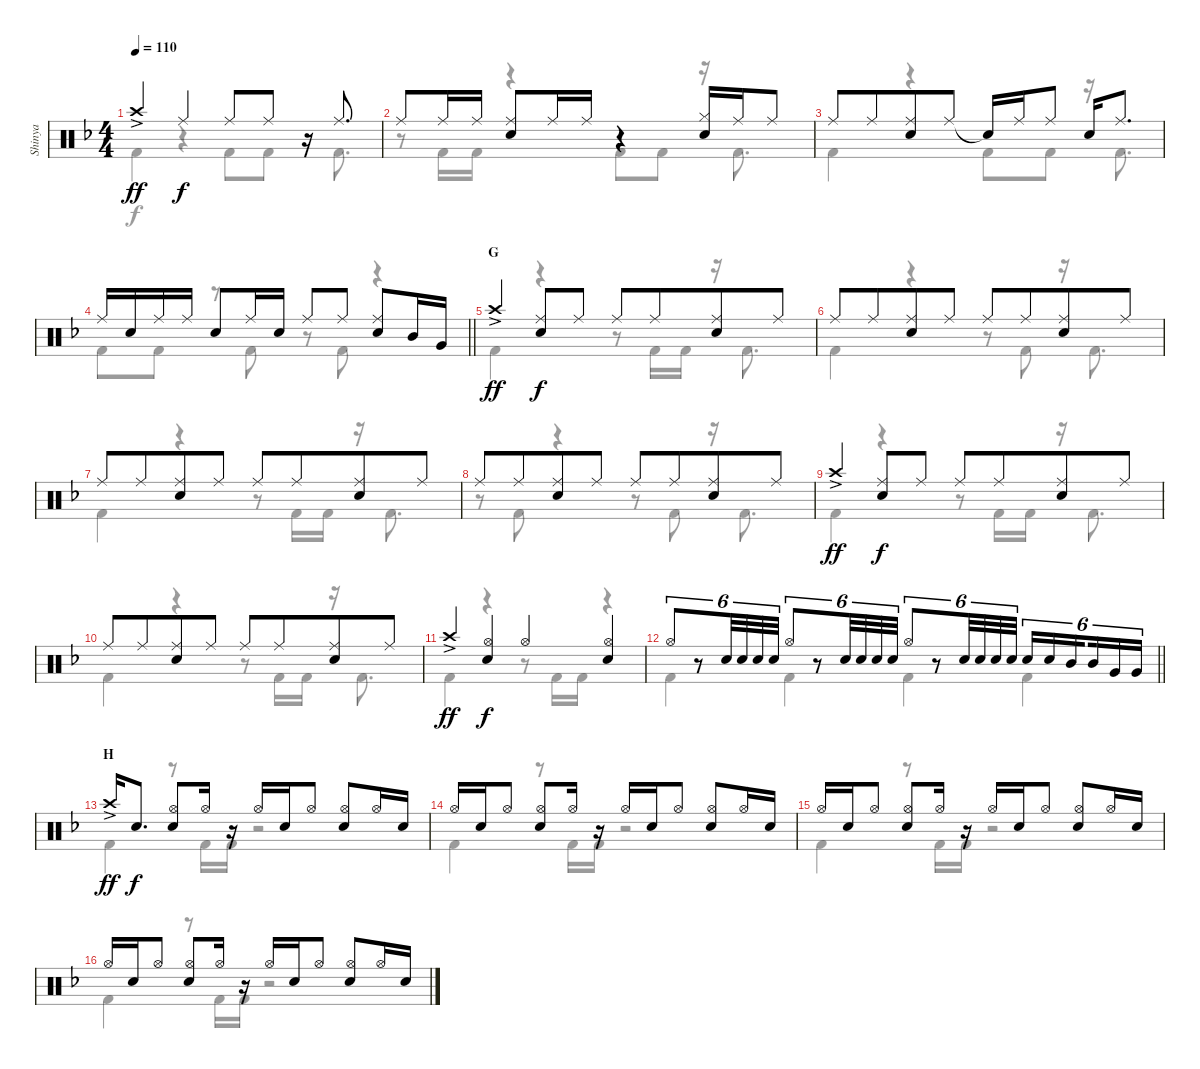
\track ("Shinya" "Shinya") {instrument percussion}
\staff {score}
\articulation defaults
\voice
\ts (4 4)
\tempo 110
\clef neutral
\ks dminor "Crash high (hit)"{ac}.4{dy ff} "Ride (middle)".4{dy f} "Ride (middle)".8 "Ride (middle)".8
r.16 "Ride (middle)".8{d} |
"Ride (middle)".8 "Ride (middle)".16 "Ride (middle)".16 ("Ride (middle)" "Snare (hit) 2").8 "Ride (middle)".16 "Ride (middle)".16 r.4 ("Hi-Hat (closed)" "Snare (hit) 2").16 "Ride (middle)".16 "Ride (middle)".8 |
"Ride (middle)".8 "Ride (middle)".8{beam merge} ("Ride (middle)" "Snare (hit) 2").8 "Ride (middle)".8 "Snare (hit)"{t}.16 "Ride (middle)".16 "Ride (middle)".8 "Snare (hit) 2".16 "Ride (middle)".8{d} |
\barLineRight lightlight "Ride (middle)".16 "Snare (hit) 2".16 "Ride (middle)".16 "Ride (middle)".16 "Snare (hit) 2".8 "Ride (middle)".16 "Snare (hit) 2".16 "Ride (middle)".8 "Ride (middle)".8
("Ride (middle)" "Snare (hit) 2").8 "Mid Tom (hit)".16 "Very Low Tom (hit)".16 |
\section ("" "G")
"Crash high (hit)"{ac}.4{dy ff} ("Ride (middle)" "Snare (hit) 2").8{dy f} "Ride (middle)".8 "Ride (middle)".8 "Ride (middle)".8{beam merge} ("Ride (middle)" "Snare (hit) 2").8 "Ride (middle)".8 |
"Ride (middle)".8 "Ride (middle)".8{beam merge} ("Ride (middle)" "Snare (hit) 2").8 "Ride (middle)".8 "Ride (middle)".8 "Ride (middle)".8{beam merge} ("Ride (middle)" "Snare (hit) 2").8 "Ride (middle)".8 |
"Ride (middle)".8 "Ride (middle)".8{beam merge} ("Ride (middle)" "Snare (hit) 2").8 "Ride (middle)".8 "Ride (middle)".8 "Ride (middle)".8{beam merge} ("Ride (middle)" "Snare (hit) 2").8 "Ride (middle)".8 |
"Ride (middle)".8 "Ride (middle)".8{beam merge} ("Ride (middle)" "Snare (hit) 2").8 "Ride (middle)".8 "Ride (middle)".8 "Ride (middle)".8{beam merge} ("Ride (middle)" "Snare (hit) 2").8 "Ride (middle)".8 |
"Crash high (hit)"{ac}.4{dy ff} ("Ride (middle)" "Snare (hit) 2").8{dy f} "Ride (middle)".8 "Ride (middle)".8 "Ride (middle)".8{beam merge} ("Ride (middle)" "Snare (hit) 2").8 "Ride (middle)".8 |
"Ride (middle)".8 "Ride (middle)".8{beam merge} ("Ride (middle)" "Snare (hit) 2").8 "Ride (middle)".8 "Ride (middle)".8 "Ride (middle)".8{beam merge} ("Ride (middle)" "Snare (hit) 2").8 "Ride (middle)".8 |
"Crash high (hit)"{ac}.4{dy ff} ("Hi-Hat (open)" "Snare (hit) 2").4{dy f} "Hi-Hat (open)".4 ("Hi-Hat (open)" "Snare (hit) 2").4 |
\barLineRight lightlight "Hi-Hat (open)".8{tu (6 4)}
r.8{tu (6 4)} "Snare (hit) 2".32{tu (6 4)} "Snare (hit) 2".32{tu (6 4)} "Snare (hit) 2".32{tu (6 4)} "Snare (hit) 2".32{tu (6 4)} "Hi-Hat (open)".8{tu (6 4)} r.8{tu (6 4)} "Snare (hit) 2".32{tu (6 4)} "Snare (hit) 2".32{tu (6 4)} "Snare (hit) 2".32{tu (6 4)} "Snare (hit) 2".32{tu (6 4)} "Hi-Hat (open)".8{tu (6 4)} r.8{tu (6 4)} "Snare (hit) 2".32{tu (6 4)} "Snare (hit) 2".32{tu (6 4)} "Snare (hit) 2".32{tu (6 4)} "Snare (hit) 2".32{tu (6 4)} "Snare (hit) 2".16{tu (6 4)} "Snare (hit) 2".16{tu (6 4)} "Mid Tom (hit)".16{tu (6 4) beam splitsecondary} "Mid Tom (hit)".16{tu (6 4)} "Very Low Tom (hit)".16{tu (6 4)} "Very Low Tom (hit)".16{tu (6 4)} |
\section ("" "H")
"Crash high (hit)"{ac}.16{dy ff} "Snare (hit) 2".8{d dy f} ("Hi-Hat (open)" "Snare (hit) 2").8 "Hi-Hat (open)".16 r.16 "Hi-Hat (open)".16 "Snare (hit) 2".16 "Hi-Hat (open)".8 ("Hi-Hat (open)" "Snare (hit) 2").8 "Hi-Hat (open)".16 "Snare (hit) 2".16 |
"Hi-Hat (open)".16 "Snare (hit) 2".16 "Hi-Hat (open)".8 ("Hi-Hat (open)" "Snare (hit) 2").8 "Hi-Hat (open)".16 r.16 "Hi-Hat (open)".16 "Snare (hit) 2".16 "Hi-Hat (open)".8 ("Hi-Hat (open)" "Snare (hit) 2").8 "Hi-Hat (open)".16 "Snare (hit) 2".16 |
"Hi-Hat (open)".16 "Snare (hit) 2".16 "Hi-Hat (open)".8 ("Hi-Hat (open)" "Snare (hit) 2").8 "Hi-Hat (open)".16 r.16 "Hi-Hat (open)".16 "Snare (hit) 2".16 "Hi-Hat (open)".8 ("Hi-Hat (open)" "Snare (hit) 2").8 "Hi-Hat (open)".16 "Snare (hit) 2".16 |
"Hi-Hat (open)".16 "Snare (hit) 2".16 "Hi-Hat (open)".8 ("Hi-Hat (open)" "Snare (hit) 2").8 "Hi-Hat (open)".16 r.16 "Hi-Hat (open)".16 "Snare (hit) 2".16 "Hi-Hat (open)".8 ("Hi-Hat (open)" "Snare (hit) 2").8 "Hi-Hat (open)".16 "Snare (hit) 2".16
\voice
\clef neutral
\ottava regular
\simile none
\ks dminor "Kick (hit) 2".4{dy f}
r.4 "Kick (hit) 2".8 "Kick (hit) 2".8 r.16 "Kick (hit) 2".8{d} |
r.8 "Kick (hit) 2".16 "Kick (hit) 2".16 r.4 "Kick (hit) 2".8 "Kick (hit) 2".8 r.16 "Kick (hit) 2".8{d} |
"Kick (hit) 2".4 r.4 "Kick (hit) 2".8 "Kick (hit) 2".8 r.16 "Kick (hit) 2".8{d} |
\barLineRight lightlight "Kick (hit) 2".8 "Kick (hit) 2".8
r.8 "Kick (hit) 2".8 r.8 "Kick (hit) 2".8 r.4 |
"Kick (hit) 2".4 r.4 r.8 "Kick (hit) 2".16 "Kick (hit) 2".16 r.16 "Kick (hit) 2".8{d} |
"Kick (hit) 2".4 r.4 r.8 "Kick (hit) 2".8 r.16 "Kick (hit) 2".8{d} |
"Kick (hit) 2".4 r.4 r.8 "Kick (hit) 2".16 "Kick (hit) 2".16 r.16 "Kick (hit) 2".8{d} |
r.8 "Kick (hit) 2".8 r.4 r.8 "Kick (hit) 2".8 r.16 "Kick (hit) 2".8{d} |
"Kick (hit) 2".4 r.4 r.8 "Kick (hit) 2".16 "Kick (hit) 2".16 r.16 "Kick (hit) 2".8{d} |
"Kick (hit) 2".4 r.4 r.8 "Kick (hit) 2".16 "Kick (hit) 2".16 r.16 "Kick (hit) 2".8{d} |
"Kick (hit) 2".4 r.4 r.8 "Kick (hit) 2".16 "Kick (hit) 2".16 r.4 |
\barLineRight lightlight "Kick (hit) 2".4 "Kick (hit) 2".4 "Kick (hit) 2".4 "Kick (hit) 2".4
|
"Kick (hit) 2".4 r.8 "Kick (hit) 2".16 "Kick (hit) 2".16 r.2 |
"Kick (hit) 2".4 r.8 "Kick (hit) 2".16 "Kick (hit) 2".16 r.2 |
"Kick (hit) 2".4 r.8 "Kick (hit) 2".16 "Kick (hit) 2".16 r.2 |
"Kick (hit) 2".4 r.8 "Kick (hit) 2".16 "Kick (hit) 2".16 r.2
